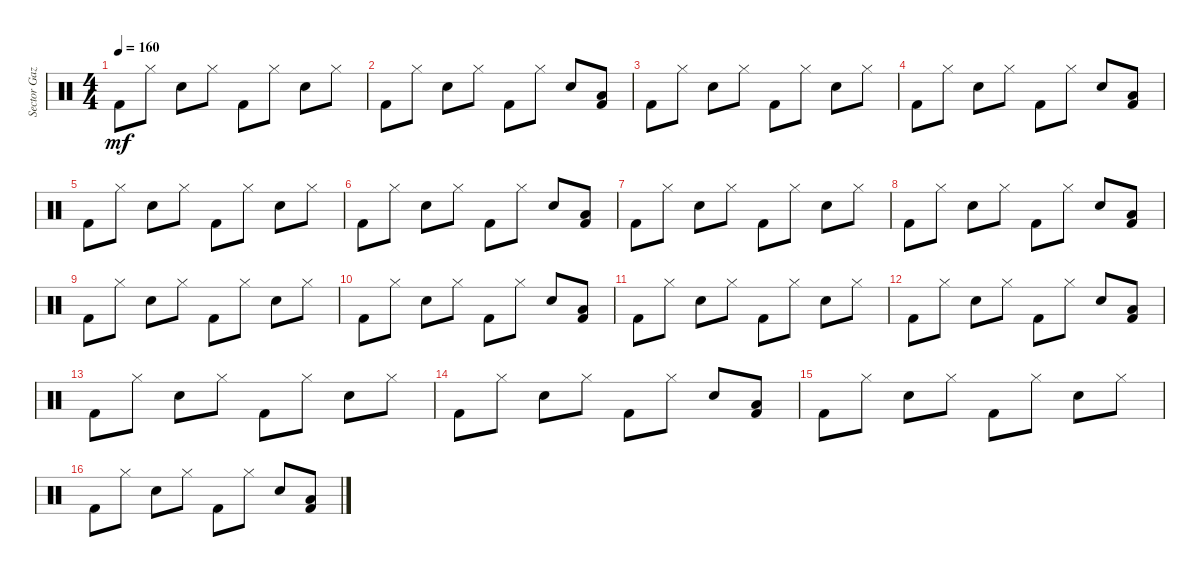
\track ("Sector Gaza" "Sector Gaz") {instrument percussion}
\staff {score}
\articulation defaults
\ts (4 4)
\tempo 160
\clef neutral
\ks c "Kick (hit) 2".8{dy mf} "Hi-Hat (closed)".8 "Snare (hit) 2".8 "Hi-Hat (closed)".8 "Kick (hit) 2".8 "Hi-Hat (closed)".8 "Snare (hit) 2".8 "Hi-Hat (closed)".8
|
"Kick (hit) 2".8 "Hi-Hat (closed)".8 "Snare (hit) 2".8 "Hi-Hat (closed)".8 "Kick (hit) 2".8 "Hi-Hat (closed)".8 "Snare (hit) 2".8 ("Kick (hit) 2" "Low Floor Tom (hit)").8 |
"Kick (hit) 2".8 "Hi-Hat (closed)".8 "Snare (hit) 2".8 "Hi-Hat (closed)".8 "Kick (hit) 2".8 "Hi-Hat (closed)".8 "Snare (hit) 2".8 "Hi-Hat (closed)".8 |
"Kick (hit) 2".8 "Hi-Hat (closed)".8 "Snare (hit) 2".8 "Hi-Hat (closed)".8 "Kick (hit) 2".8 "Hi-Hat (closed)".8 "Snare (hit) 2".8 ("Kick (hit) 2" "Low Floor Tom (hit)").8 |
"Kick (hit) 2".8 "Hi-Hat (closed)".8 "Snare (hit) 2".8 "Hi-Hat (closed)".8 "Kick (hit) 2".8 "Hi-Hat (closed)".8 "Snare (hit) 2".8 "Hi-Hat (closed)".8 |
"Kick (hit) 2".8 "Hi-Hat (closed)".8 "Snare (hit) 2".8 "Hi-Hat (closed)".8 "Kick (hit) 2".8 "Hi-Hat (closed)".8 "Snare (hit) 2".8 ("Kick (hit) 2" "Low Floor Tom (hit)").8 |
"Kick (hit) 2".8 "Hi-Hat (closed)".8 "Snare (hit) 2".8 "Hi-Hat (closed)".8 "Kick (hit) 2".8 "Hi-Hat (closed)".8 "Snare (hit) 2".8 "Hi-Hat (closed)".8 |
"Kick (hit) 2".8 "Hi-Hat (closed)".8 "Snare (hit) 2".8 "Hi-Hat (closed)".8 "Kick (hit) 2".8 "Hi-Hat (closed)".8 "Snare (hit) 2".8 ("Kick (hit) 2" "Low Floor Tom (hit)").8 |
"Kick (hit) 2".8 "Hi-Hat (closed)".8 "Snare (hit) 2".8 "Hi-Hat (closed)".8 "Kick (hit) 2".8 "Hi-Hat (closed)".8 "Snare (hit) 2".8 "Hi-Hat (closed)".8 |
"Kick (hit) 2".8 "Hi-Hat (closed)".8 "Snare (hit) 2".8 "Hi-Hat (closed)".8 "Kick (hit) 2".8 "Hi-Hat (closed)".8 "Snare (hit) 2".8 ("Kick (hit) 2" "Low Floor Tom (hit)").8 |
"Kick (hit) 2".8 "Hi-Hat (closed)".8 "Snare (hit) 2".8 "Hi-Hat (closed)".8 "Kick (hit) 2".8 "Hi-Hat (closed)".8 "Snare (hit) 2".8 "Hi-Hat (closed)".8 |
"Kick (hit) 2".8 "Hi-Hat (closed)".8 "Snare (hit) 2".8 "Hi-Hat (closed)".8 "Kick (hit) 2".8 "Hi-Hat (closed)".8 "Snare (hit) 2".8 ("Kick (hit) 2" "Low Floor Tom (hit)").8 |
"Kick (hit) 2".8 "Hi-Hat (closed)".8 "Snare (hit) 2".8 "Hi-Hat (closed)".8 "Kick (hit) 2".8 "Hi-Hat (closed)".8 "Snare (hit) 2".8 "Hi-Hat (closed)".8 |
"Kick (hit) 2".8 "Hi-Hat (closed)".8 "Snare (hit) 2".8 "Hi-Hat (closed)".8 "Kick (hit) 2".8 "Hi-Hat (closed)".8 "Snare (hit) 2".8 ("Kick (hit) 2" "Low Floor Tom (hit)").8 |
"Kick (hit) 2".8 "Hi-Hat (closed)".8 "Snare (hit) 2".8 "Hi-Hat (closed)".8 "Kick (hit) 2".8 "Hi-Hat (closed)".8 "Snare (hit) 2".8 "Hi-Hat (closed)".8 |
"Kick (hit) 2".8 "Hi-Hat (closed)".8 "Snare (hit) 2".8 "Hi-Hat (closed)".8 "Kick (hit) 2".8 "Hi-Hat (closed)".8 "Snare (hit) 2".8 ("Kick (hit) 2" "Low Floor Tom (hit)").8
